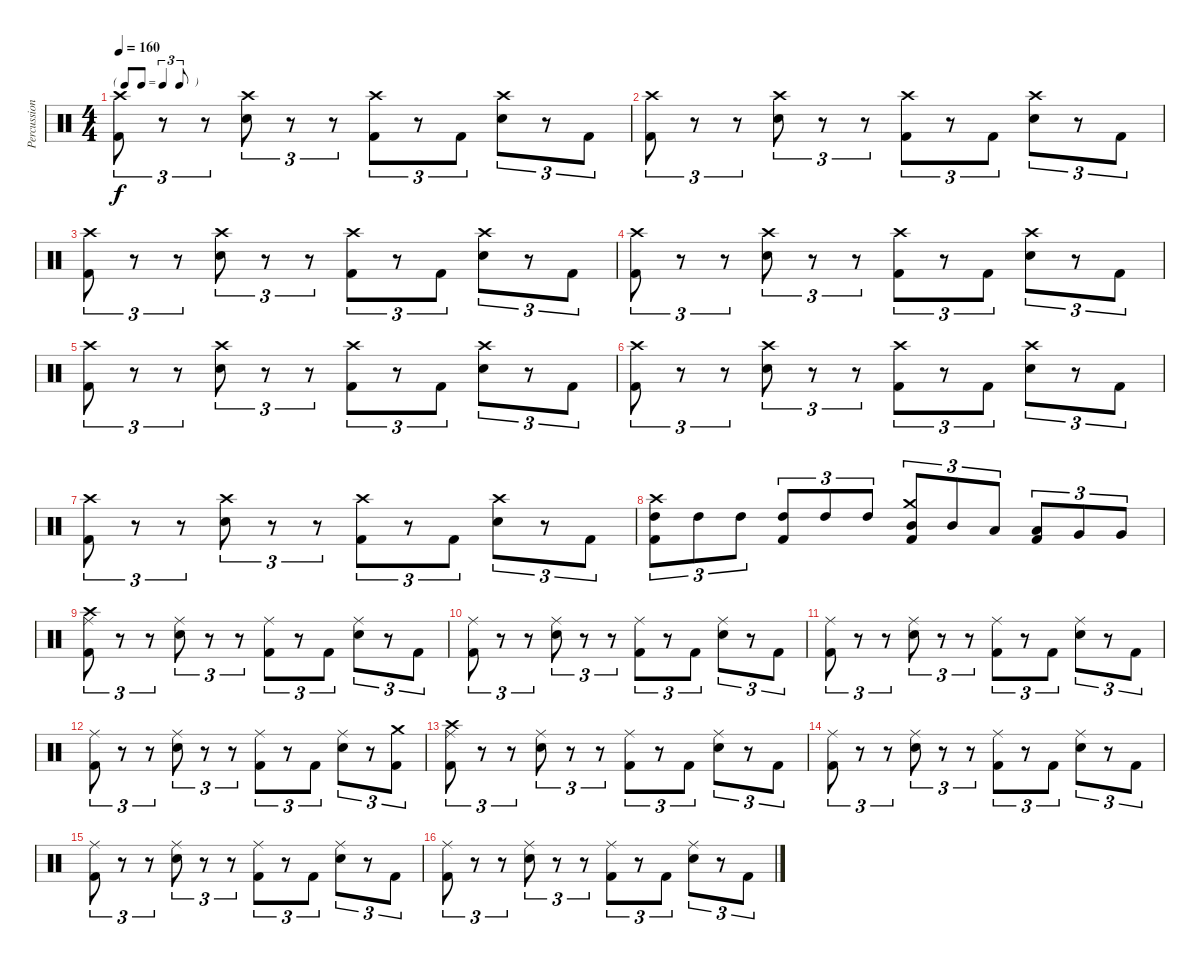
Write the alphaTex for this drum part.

\track ("Percussion" "Percussion") {instrument percussion}
\staff {score}
\articulation defaults
\ts (4 4)
\tf triplet8th
\tempo 160
\clef neutral
\ks c
("Crash high (hit)" "Kick (hit) 2").8{tu (3 2) dy f} r.8{tu (3 2)} r.8{tu (3 2)} ("Crash high (hit)" "Electric Snare (hit)").8{tu (3 2)} r.8{tu (3 2)} r.8{tu (3 2)} ("Crash high (hit)" "Kick (hit) 2").8{tu (3 2)} r.8{tu (3 2)} "Kick (hit) 2".8{tu (3 2)} ("Crash high (hit)" "Electric Snare (hit)").8{tu (3 2)} r.8{tu (3 2)} "Kick (hit) 2".8{tu (3 2)} |
("Crash high (hit)" "Kick (hit) 2").8{tu (3 2)} r.8{tu (3 2)} r.8{tu (3 2)} ("Crash high (hit)" "Electric Snare (hit)").8{tu (3 2)} r.8{tu (3 2)} r.8{tu (3 2)} ("Crash high (hit)" "Kick (hit) 2").8{tu (3 2)} r.8{tu (3 2)} "Kick (hit) 2".8{tu (3 2)} ("Crash high (hit)" "Electric Snare (hit)").8{tu (3 2)} r.8{tu (3 2)} "Kick (hit) 2".8{tu (3 2)} |
("Crash high (hit)" "Kick (hit) 2").8{tu (3 2)} r.8{tu (3 2)} r.8{tu (3 2)} ("Crash high (hit)" "Electric Snare (hit)").8{tu (3 2)} r.8{tu (3 2)} r.8{tu (3 2)} ("Crash high (hit)" "Kick (hit) 2").8{tu (3 2)} r.8{tu (3 2)} "Kick (hit) 2".8{tu (3 2)} ("Crash high (hit)" "Electric Snare (hit)").8{tu (3 2)} r.8{tu (3 2)} "Kick (hit) 2".8{tu (3 2)} |
("Crash high (hit)" "Kick (hit) 2").8{tu (3 2)} r.8{tu (3 2)} r.8{tu (3 2)} ("Crash high (hit)" "Electric Snare (hit)").8{tu (3 2)} r.8{tu (3 2)} r.8{tu (3 2)} ("Crash high (hit)" "Kick (hit) 2").8{tu (3 2)} r.8{tu (3 2)} "Kick (hit) 2".8{tu (3 2)} ("Crash high (hit)" "Electric Snare (hit)").8{tu (3 2)} r.8{tu (3 2)} "Kick (hit) 2".8{tu (3 2)} |
("Crash high (hit)" "Kick (hit) 2").8{tu (3 2)} r.8{tu (3 2)} r.8{tu (3 2)} ("Crash high (hit)" "Electric Snare (hit)").8{tu (3 2)} r.8{tu (3 2)} r.8{tu (3 2)} ("Crash high (hit)" "Kick (hit) 2").8{tu (3 2)} r.8{tu (3 2)} "Kick (hit) 2".8{tu (3 2)} ("Crash high (hit)" "Electric Snare (hit)").8{tu (3 2)} r.8{tu (3 2)} "Kick (hit) 2".8{tu (3 2)} |
("Crash high (hit)" "Kick (hit) 2").8{tu (3 2)} r.8{tu (3 2)} r.8{tu (3 2)} ("Crash high (hit)" "Electric Snare (hit)").8{tu (3 2)} r.8{tu (3 2)} r.8{tu (3 2)} ("Crash high (hit)" "Kick (hit) 2").8{tu (3 2)} r.8{tu (3 2)} "Kick (hit) 2".8{tu (3 2)} ("Crash high (hit)" "Electric Snare (hit)").8{tu (3 2)} r.8{tu (3 2)} "Kick (hit) 2".8{tu (3 2)} |
("Crash high (hit)" "Kick (hit) 2").8{tu (3 2)} r.8{tu (3 2)} r.8{tu (3 2)} ("Crash high (hit)" "Electric Snare (hit)").8{tu (3 2)} r.8{tu (3 2)} r.8{tu (3 2)} ("Crash high (hit)" "Kick (hit) 2").8{tu (3 2)} r.8{tu (3 2)} "Kick (hit) 2".8{tu (3 2)} ("Crash high (hit)" "Electric Snare (hit)").8{tu (3 2)} r.8{tu (3 2)} "Kick (hit) 2".8{tu (3 2)} |
("Crash high (hit)" "High Tom (hit)" "Kick (hit) 2").8{tu (3 2)} "High Tom (hit)".8{tu (3 2)} "High Tom (hit)".8{tu (3 2)} ("High Tom (hit)" "Kick (hit) 2").8{tu (3 2)} "High Tom (hit)".8{tu (3 2)} "High Tom (hit)".8{tu (3 2)} ("Crash medium (hit)" "Mid Tom (hit)" "Kick (hit) 2").8{tu (3 2)} "Mid Tom (hit)".8{tu (3 2)} "Low Tom (hit)".8{tu (3 2)} ("Low Tom (hit)" "Kick (hit) 2").8{tu (3 2)} "Very Low Tom (hit)".8{tu (3 2)} "Very Low Tom (hit)".8{tu (3 2)} |
("Crash high (hit)" "Ride (middle)" "Kick (hit) 2").8{tu (3 2)} r.8{tu (3 2)} r.8{tu (3 2)} ("Ride (middle)" "Electric Snare (hit)").8{tu (3 2)} r.8{tu (3 2)} r.8{tu (3 2)} ("Ride (middle)" "Kick (hit) 2").8{tu (3 2)} r.8{tu (3 2)} "Kick (hit) 2".8{tu (3 2)} ("Ride (middle)" "Electric Snare (hit)").8{tu (3 2)} r.8{tu (3 2)} "Kick (hit) 2".8{tu (3 2)} |
("Ride (middle)" "Kick (hit) 2").8{tu (3 2)} r.8{tu (3 2)} r.8{tu (3 2)} ("Ride (middle)" "Electric Snare (hit)").8{tu (3 2)} r.8{tu (3 2)} r.8{tu (3 2)} ("Ride (middle)" "Kick (hit) 2").8{tu (3 2)} r.8{tu (3 2)} "Kick (hit) 2".8{tu (3 2)} ("Ride (middle)" "Electric Snare (hit)").8{tu (3 2)} r.8{tu (3 2)} "Kick (hit) 2".8{tu (3 2)} |
("Ride (middle)" "Kick (hit) 2").8{tu (3 2)} r.8{tu (3 2)} r.8{tu (3 2)} ("Ride (middle)" "Electric Snare (hit)").8{tu (3 2)} r.8{tu (3 2)} r.8{tu (3 2)} ("Ride (middle)" "Kick (hit) 2").8{tu (3 2)} r.8{tu (3 2)} "Kick (hit) 2".8{tu (3 2)} ("Ride (middle)" "Electric Snare (hit)").8{tu (3 2)} r.8{tu (3 2)} "Kick (hit) 2".8{tu (3 2)} |
("Ride (middle)" "Kick (hit) 2").8{tu (3 2)} r.8{tu (3 2)} r.8{tu (3 2)} ("Ride (middle)" "Electric Snare (hit)").8{tu (3 2)} r.8{tu (3 2)} r.8{tu (3 2)} ("Ride (middle)" "Kick (hit) 2").8{tu (3 2)} r.8{tu (3 2)} "Kick (hit) 2".8{tu (3 2)} ("Ride (middle)" "Electric Snare (hit)").8{tu (3 2)} r.8{tu (3 2)} ("Crash medium (hit)" "Kick (hit) 2").8{tu (3 2)} |
("Crash high (hit)" "Ride (middle)" "Kick (hit) 2").8{tu (3 2)} r.8{tu (3 2)} r.8{tu (3 2)} ("Ride (middle)" "Electric Snare (hit)").8{tu (3 2)} r.8{tu (3 2)} r.8{tu (3 2)} ("Ride (middle)" "Kick (hit) 2").8{tu (3 2)} r.8{tu (3 2)} "Kick (hit) 2".8{tu (3 2)} ("Ride (middle)" "Electric Snare (hit)").8{tu (3 2)} r.8{tu (3 2)} "Kick (hit) 2".8{tu (3 2)} |
("Ride (middle)" "Kick (hit) 2").8{tu (3 2)} r.8{tu (3 2)} r.8{tu (3 2)} ("Ride (middle)" "Electric Snare (hit)").8{tu (3 2)} r.8{tu (3 2)} r.8{tu (3 2)} ("Ride (middle)" "Kick (hit) 2").8{tu (3 2)} r.8{tu (3 2)} "Kick (hit) 2".8{tu (3 2)} ("Ride (middle)" "Electric Snare (hit)").8{tu (3 2)} r.8{tu (3 2)} "Kick (hit) 2".8{tu (3 2)} |
("Ride (middle)" "Kick (hit) 2").8{tu (3 2)} r.8{tu (3 2)} r.8{tu (3 2)} ("Ride (middle)" "Electric Snare (hit)").8{tu (3 2)} r.8{tu (3 2)} r.8{tu (3 2)} ("Ride (middle)" "Kick (hit) 2").8{tu (3 2)} r.8{tu (3 2)} "Kick (hit) 2".8{tu (3 2)} ("Ride (middle)" "Electric Snare (hit)").8{tu (3 2)} r.8{tu (3 2)} "Kick (hit) 2".8{tu (3 2)} |
("Ride (middle)" "Kick (hit) 2").8{tu (3 2)} r.8{tu (3 2)} r.8{tu (3 2)} ("Ride (middle)" "Electric Snare (hit)").8{tu (3 2)} r.8{tu (3 2)} r.8{tu (3 2)} ("Ride (middle)" "Kick (hit) 2").8{tu (3 2)} r.8{tu (3 2)} "Kick (hit) 2".8{tu (3 2)} ("Ride (middle)" "Electric Snare (hit)").8{tu (3 2)} r.8{tu (3 2)} "Kick (hit) 2".8{tu (3 2)}
